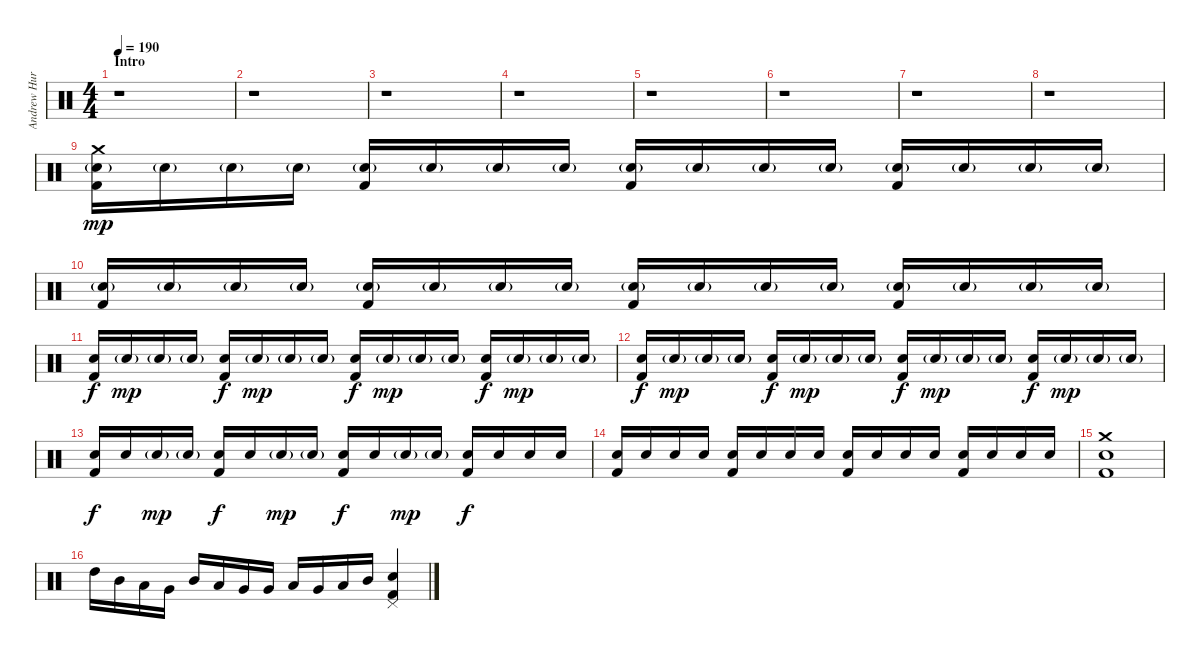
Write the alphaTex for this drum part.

\track ("Andrew Hurley (Drums)" "Andrew Hur") {instrument percussion}
\staff {score}
\articulation defaults
\ts (4 4)
\section ("" "Intro")
\tempo 190
\clef neutral
\ks c
r.1{dy mp} |
r.1 |
r.1 |
r.1 |
r.1 |
r.1 |
r.1 |
r.1 |
("Crash medium (hit)" "Electric Snare (hit)"{g} "Kick (hit) 2").16 "Electric Snare (hit)"{g}.16 "Electric Snare (hit)"{g}.16 "Electric Snare (hit)"{g}.16 ("Electric Snare (hit)"{g} "Kick (hit) 2").16 "Electric Snare (hit)"{g}.16 "Electric Snare (hit)"{g}.16 "Electric Snare (hit)"{g}.16 ("Electric Snare (hit)"{g} "Kick (hit) 2").16 "Electric Snare (hit)"{g}.16 "Electric Snare (hit)"{g}.16 "Electric Snare (hit)"{g}.16 ("Electric Snare (hit)"{g} "Kick (hit) 2").16 "Electric Snare (hit)"{g}.16 "Electric Snare (hit)"{g}.16 "Electric Snare (hit)"{g}.16 |
("Electric Snare (hit)"{g} "Kick (hit) 2").16 "Electric Snare (hit)"{g}.16 "Electric Snare (hit)"{g}.16 "Electric Snare (hit)"{g}.16 ("Electric Snare (hit)"{g} "Kick (hit) 2").16 "Electric Snare (hit)"{g}.16 "Electric Snare (hit)"{g}.16 "Electric Snare (hit)"{g}.16 ("Electric Snare (hit)"{g} "Kick (hit) 2").16 "Electric Snare (hit)"{g}.16 "Electric Snare (hit)"{g}.16 "Electric Snare (hit)"{g}.16 ("Electric Snare (hit)"{g} "Kick (hit) 2").16 "Electric Snare (hit)"{g}.16 "Electric Snare (hit)"{g}.16 "Electric Snare (hit)"{g}.16 |
("Electric Snare (hit)" "Kick (hit) 2").16{dy f} "Electric Snare (hit)"{g}.16{dy mp} "Electric Snare (hit)"{g}.16 "Electric Snare (hit)"{g}.16 ("Electric Snare (hit)" "Kick (hit) 2").16{dy f} "Electric Snare (hit)"{g}.16{dy mp} "Electric Snare (hit)"{g}.16 "Electric Snare (hit)"{g}.16 ("Electric Snare (hit)" "Kick (hit) 2").16{dy f} "Electric Snare (hit)"{g}.16{dy mp} "Electric Snare (hit)"{g}.16 "Electric Snare (hit)"{g}.16 ("Electric Snare (hit)" "Kick (hit) 2").16{dy f} "Electric Snare (hit)"{g}.16{dy mp} "Electric Snare (hit)"{g}.16 "Electric Snare (hit)"{g}.16 |
("Electric Snare (hit)" "Kick (hit) 2").16{dy f} "Electric Snare (hit)"{g}.16{dy mp} "Electric Snare (hit)"{g}.16 "Electric Snare (hit)"{g}.16 ("Electric Snare (hit)" "Kick (hit) 2").16{dy f} "Electric Snare (hit)"{g}.16{dy mp} "Electric Snare (hit)"{g}.16 "Electric Snare (hit)"{g}.16 ("Electric Snare (hit)" "Kick (hit) 2").16{dy f} "Electric Snare (hit)"{g}.16{dy mp} "Electric Snare (hit)"{g}.16 "Electric Snare (hit)"{g}.16 ("Electric Snare (hit)" "Kick (hit) 2").16{dy f} "Electric Snare (hit)"{g}.16{dy mp} "Electric Snare (hit)"{g}.16 "Electric Snare (hit)"{g}.16 |
("Electric Snare (hit)" "Kick (hit) 2").16{dy f} "Electric Snare (hit)".16 "Electric Snare (hit)"{g}.16{dy mp} "Electric Snare (hit)"{g}.16 ("Electric Snare (hit)" "Kick (hit) 2").16{dy f} "Electric Snare (hit)".16 "Electric Snare (hit)"{g}.16{dy mp} "Electric Snare (hit)"{g}.16 ("Electric Snare (hit)" "Kick (hit) 2").16{dy f} "Electric Snare (hit)".16 "Electric Snare (hit)"{g}.16{dy mp} "Electric Snare (hit)"{g}.16 ("Electric Snare (hit)" "Kick (hit) 2").16{dy f} "Electric Snare (hit)".16 "Electric Snare (hit)".16 "Electric Snare (hit)".16 |
("Electric Snare (hit)" "Kick (hit) 2").16 "Electric Snare (hit)".16 "Electric Snare (hit)".16 "Electric Snare (hit)".16 ("Electric Snare (hit)" "Kick (hit) 2").16 "Electric Snare (hit)".16 "Electric Snare (hit)".16 "Electric Snare (hit)".16 ("Electric Snare (hit)" "Kick (hit) 2").16 "Electric Snare (hit)".16 "Electric Snare (hit)".16 "Electric Snare (hit)".16 ("Electric Snare (hit)" "Kick (hit) 2").16 "Electric Snare (hit)".16 "Electric Snare (hit)".16 "Electric Snare (hit)".16 |
("Crash medium (hit)" "Electric Snare (hit)" "Kick (hit) 2").1 |
"High Tom (hit)".16 "Mid Tom (hit)".16 "Low Tom (hit)".16 "Very Low Tom (hit)".16 "Mid Tom (hit)".16 "Low Tom (hit)".16 "Very Low Tom (hit)".16 "Very Low Tom (hit)".16 "Low Tom (hit)".16 "Very Low Tom (hit)".16 "Low Tom (hit)".16 "Mid Tom (hit)".16 ("Pedal Hi-Hat (hit)" "Electric Snare (hit)" "Kick (hit) 2").4
